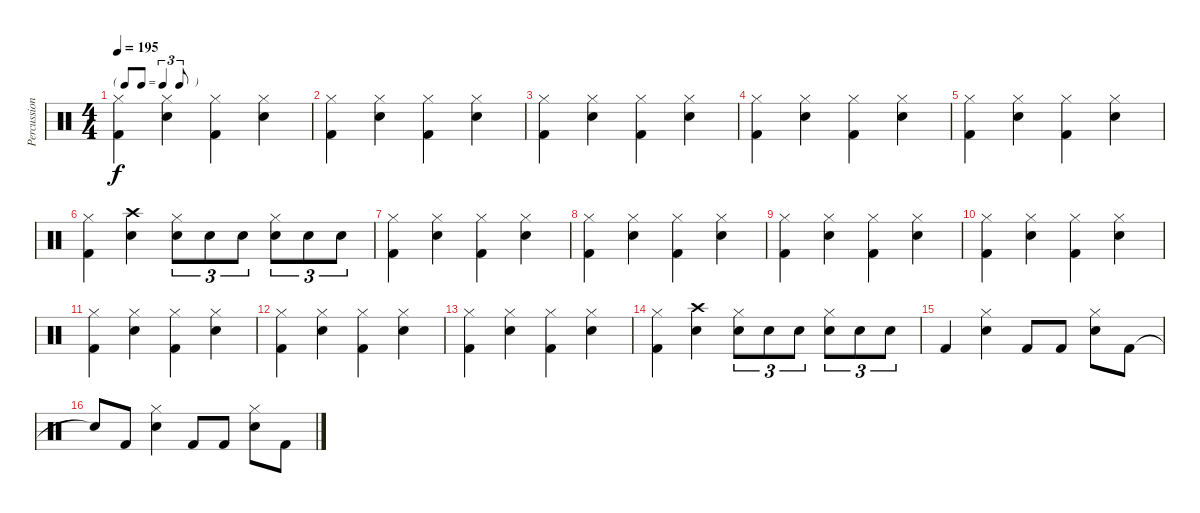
\track ("Percussions" "Percussion") {instrument percussion}
\staff {score}
\articulation defaults
\ts (4 4)
\tf triplet8th
\tempo 195
\clef neutral
\ks c
("Hi-Hat (closed)" "Kick (hit) 2").4{dy f} ("Snare (hit) 2" "Hi-Hat (closed)").4 ("Hi-Hat (closed)" "Kick (hit) 2").4 ("Snare (hit) 2" "Hi-Hat (closed)").4 |
("Hi-Hat (closed)" "Kick (hit) 2").4 ("Snare (hit) 2" "Hi-Hat (closed)").4 ("Hi-Hat (closed)" "Kick (hit) 2").4 ("Snare (hit) 2" "Hi-Hat (closed)").4 |
("Hi-Hat (closed)" "Kick (hit) 2").4 ("Snare (hit) 2" "Hi-Hat (closed)").4 ("Hi-Hat (closed)" "Kick (hit) 2").4 ("Snare (hit) 2" "Hi-Hat (closed)").4 |
("Hi-Hat (closed)" "Kick (hit) 2").4 ("Snare (hit) 2" "Hi-Hat (closed)").4 ("Hi-Hat (closed)" "Kick (hit) 2").4 ("Snare (hit) 2" "Hi-Hat (closed)").4 |
("Hi-Hat (closed)" "Kick (hit) 2").4 ("Snare (hit) 2" "Hi-Hat (closed)").4 ("Hi-Hat (closed)" "Kick (hit) 2").4 ("Snare (hit) 2" "Hi-Hat (closed)").4 |
("Hi-Hat (closed)" "Kick (hit) 2").4 ("Snare (hit) 2" "Crash high (hit)").4 ("Snare (hit) 2" "Hi-Hat (closed)").8{tu (3 2)} "Snare (hit) 2".8{tu (3 2)} "Snare (hit) 2".8{tu (3 2)} ("Snare (hit) 2" "Hi-Hat (closed)").8{tu (3 2)} "Snare (hit) 2".8{tu (3 2)} "Snare (hit) 2".8{tu (3 2)} |
("Hi-Hat (closed)" "Kick (hit) 2").4 ("Snare (hit) 2" "Hi-Hat (closed)").4 ("Hi-Hat (closed)" "Kick (hit) 2").4 ("Snare (hit) 2" "Hi-Hat (closed)").4 |
("Hi-Hat (closed)" "Kick (hit) 2").4 ("Snare (hit) 2" "Hi-Hat (closed)").4 ("Hi-Hat (closed)" "Kick (hit) 2").4 ("Snare (hit) 2" "Hi-Hat (closed)").4 |
("Hi-Hat (closed)" "Kick (hit) 2").4 ("Snare (hit) 2" "Hi-Hat (closed)").4 ("Hi-Hat (closed)" "Kick (hit) 2").4 ("Snare (hit) 2" "Hi-Hat (closed)").4 |
("Hi-Hat (closed)" "Kick (hit) 2").4 ("Snare (hit) 2" "Hi-Hat (closed)").4 ("Hi-Hat (closed)" "Kick (hit) 2").4 ("Snare (hit) 2" "Hi-Hat (closed)").4 |
("Hi-Hat (closed)" "Kick (hit) 2").4 ("Snare (hit) 2" "Hi-Hat (closed)").4 ("Hi-Hat (closed)" "Kick (hit) 2").4 ("Snare (hit) 2" "Hi-Hat (closed)").4 |
("Hi-Hat (closed)" "Kick (hit) 2").4 ("Snare (hit) 2" "Hi-Hat (closed)").4 ("Hi-Hat (closed)" "Kick (hit) 2").4 ("Snare (hit) 2" "Hi-Hat (closed)").4 |
("Hi-Hat (closed)" "Kick (hit) 2").4 ("Snare (hit) 2" "Hi-Hat (closed)").4 ("Hi-Hat (closed)" "Kick (hit) 2").4 ("Snare (hit) 2" "Hi-Hat (closed)").4 |
("Hi-Hat (closed)" "Kick (hit) 2").4 ("Snare (hit) 2" "Crash high (hit)").4 ("Snare (hit) 2" "Hi-Hat (closed)").8{tu (3 2)} "Snare (hit) 2".8{tu (3 2)} "Snare (hit) 2".8{tu (3 2)} ("Snare (hit) 2" "Hi-Hat (closed)").8{tu (3 2)} "Snare (hit) 2".8{tu (3 2)} "Snare (hit) 2".8{tu (3 2)} |
"Kick (hit) 2".4 ("Snare (hit) 2" "Hi-Hat (closed)").4 "Kick (hit) 2".8 "Kick (hit) 2".8 ("Snare (hit) 2" "Hi-Hat (closed)").8 "Kick (hit) 2".8 |
"Snare (hit)"{t}.8 "Kick (hit) 2".8 ("Snare (hit) 2" "Hi-Hat (closed)").4 "Kick (hit) 2".8 "Kick (hit) 2".8 ("Snare (hit) 2" "Hi-Hat (closed)").8 "Kick (hit) 2".8
